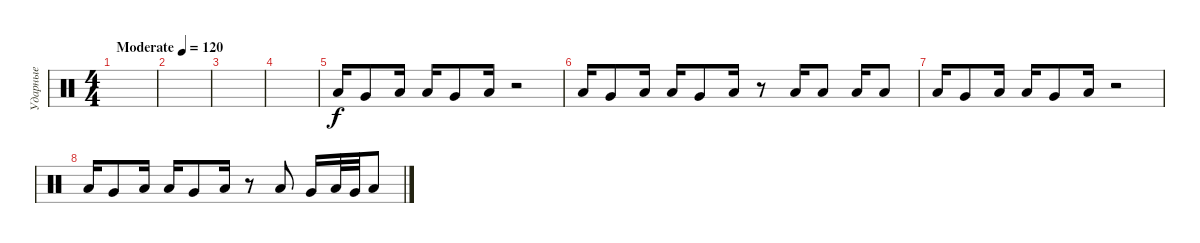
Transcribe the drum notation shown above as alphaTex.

\track ("Ударные" "Ударные") {instrument percussion}
\staff {score}
\articulation defaults
\ts (4 4)
\tempo (120 "Moderate")
\clef neutral
\ks c
|
|
|
|
"Low Floor Tom (hit)".16 "Very Low Tom (hit)".8 "Low Tom (hit)".16 "Low Floor Tom (hit)".16 "Very Low Tom (hit)".8 "Low Tom (hit)".16 r.2 |
"Low Floor Tom (hit)".16 "Very Low Tom (hit)".8 "Low Tom (hit)".16 "Low Floor Tom (hit)".16 "Very Low Tom (hit)".8 "Low Tom (hit)".16 r.8 "Low Tom (hit)".16 "Low Tom (hit)".8 "Low Tom (hit)".16 "Low Tom (hit)".8 |
"Low Floor Tom (hit)".16 "Very Low Tom (hit)".8 "Low Tom (hit)".16 "Low Floor Tom (hit)".16 "Very Low Tom (hit)".8 "Low Tom (hit)".16 r.2 |
"Low Floor Tom (hit)".16 "Very Low Tom (hit)".8 "Low Tom (hit)".16 "Low Floor Tom (hit)".16 "Very Low Tom (hit)".8 "Low Tom (hit)".16 r.8 "Low Tom (hit)".8 "Very Low Tom (hit)".16 "Low Tom (hit)".32 "Very Low Tom (hit)".32 "Low Tom (hit)".8
